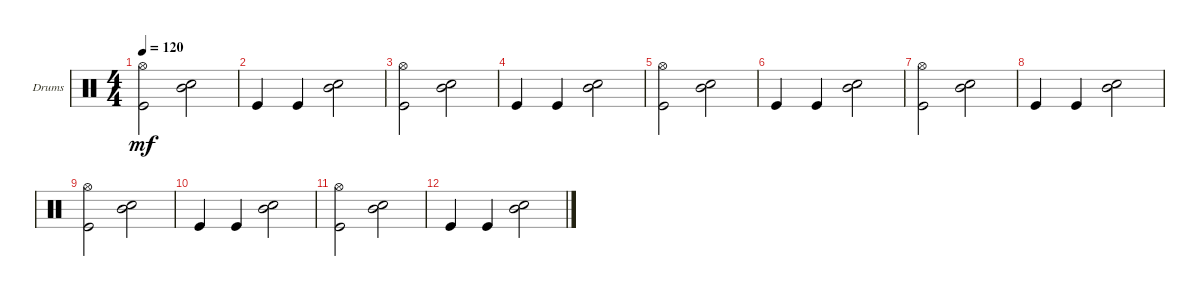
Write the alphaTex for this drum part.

\bracketExtendMode groupsimilarinstruments
\firstSystemTrackNameOrientation horizontal
\otherSystemsTrackNameOrientation horizontal
\track ("Drumkit" "Drums") {instrument percussion}
\staff {score}
\articulation defaults
\ts (4 4)
\tempo 120
\clef neutral
\ks c
("Kick (hit)" "Hi-Hat (open)").2{dy mf} ("Mid Tom (hit)" "Snare (hit) 2").2 |
"Kick (hit)".4 "Kick (hit)".4 ("Mid Tom (hit)" "Snare (hit) 2").2 |
("Kick (hit)" "Hi-Hat (open)").2 ("Mid Tom (hit)" "Snare (hit) 2").2 |
"Kick (hit)".4 "Kick (hit)".4 ("Mid Tom (hit)" "Snare (hit) 2").2 |
("Kick (hit)" "Hi-Hat (open)").2 ("Mid Tom (hit)" "Snare (hit) 2").2 |
"Kick (hit)".4 "Kick (hit)".4 ("Mid Tom (hit)" "Snare (hit) 2").2 |
("Kick (hit)" "Hi-Hat (open)").2 ("Mid Tom (hit)" "Snare (hit) 2").2 |
"Kick (hit)".4 "Kick (hit)".4 ("Mid Tom (hit)" "Snare (hit) 2").2 |
("Kick (hit)" "Hi-Hat (open)").2 ("Mid Tom (hit)" "Snare (hit) 2").2 |
"Kick (hit)".4 "Kick (hit)".4 ("Mid Tom (hit)" "Snare (hit) 2").2 |
("Kick (hit)" "Hi-Hat (open)").2 ("Mid Tom (hit)" "Snare (hit) 2").2 |
"Kick (hit)".4 "Kick (hit)".4 ("Mid Tom (hit)" "Snare (hit) 2").2
